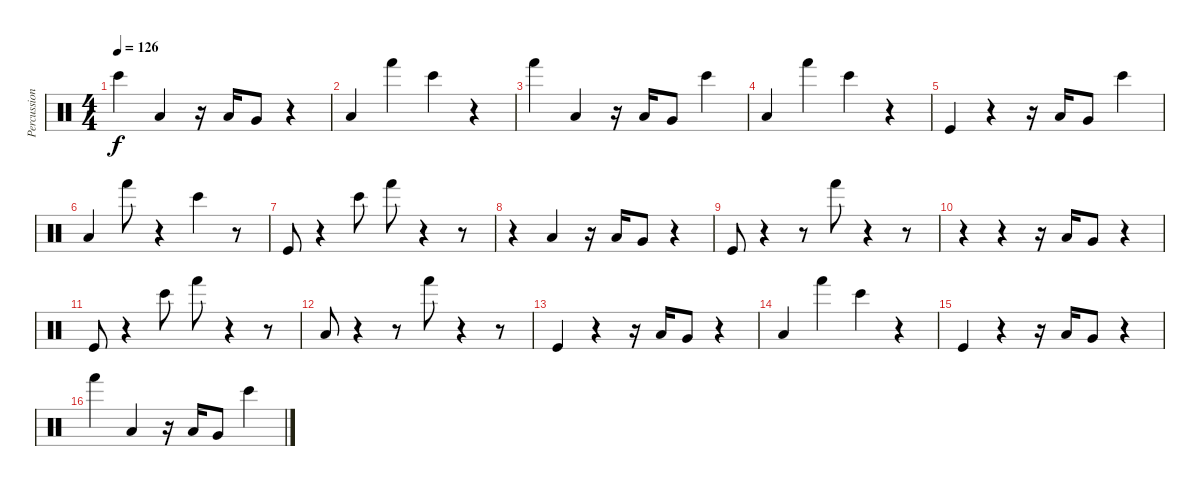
\track ("Percussion" "Percussion") {instrument percussion}
\staff {score}
\articulation defaults
\ts (4 4)
\tempo 126
\clef neutral
\ks c "Bongo High (hit)".4{dy f} "Low Floor Tom (hit)".4
r.16 "Low Floor Tom (hit)".16 "Very Low Tom (hit)".8 r.4 |
"Low Floor Tom (hit)".4 "Hand (hit)".4 "Bongo High (hit)".4 r.4 |
"Hand (hit)".4 "Low Floor Tom (hit)".4 r.16 "Low Floor Tom (hit)".16 "Very Low Tom (hit)".8 "Bongo High (hit)".4 |
"Low Floor Tom (hit)".4 "Hand (hit)".4 "Bongo High (hit)".4 r.4 |
"Kick (hit)".4 r.4 r.16 "Low Floor Tom (hit)".16 "Very Low Tom (hit)".8 "Bongo High (hit)".4 |
"Low Floor Tom (hit)".4 "Hand (hit)".8 r.4 "Bongo High (hit)".4 r.8 |
"Kick (hit)".8 r.4 "Bongo High (hit)".8 "Hand (hit)".8 r.4 r.8 |
r.4 "Low Floor Tom (hit)".4 r.16 "Low Floor Tom (hit)".16 "Very Low Tom (hit)".8 r.4 |
"Kick (hit)".8 r.4 r.8 "Hand (hit)".8 r.4 r.8 |
r.4 r.4 r.16 "Low Floor Tom (hit)".16 "Very Low Tom (hit)".8 r.4 |
"Kick (hit)".8 r.4 "Bongo High (hit)".8 "Hand (hit)".8 r.4 r.8 |
"Low Floor Tom (hit)".8 r.4 r.8 "Hand (hit)".8 r.4 r.8 |
"Kick (hit)".4 r.4 r.16 "Low Floor Tom (hit)".16 "Very Low Tom (hit)".8 r.4 |
"Low Floor Tom (hit)".4 "Hand (hit)".4 "Bongo High (hit)".4 r.4 |
"Kick (hit)".4 r.4 r.16 "Low Floor Tom (hit)".16 "Very Low Tom (hit)".8 r.4 |
"Hand (hit)".4 "Low Floor Tom (hit)".4 r.16 "Low Floor Tom (hit)".16 "Very Low Tom (hit)".8 "Bongo High (hit)".4
